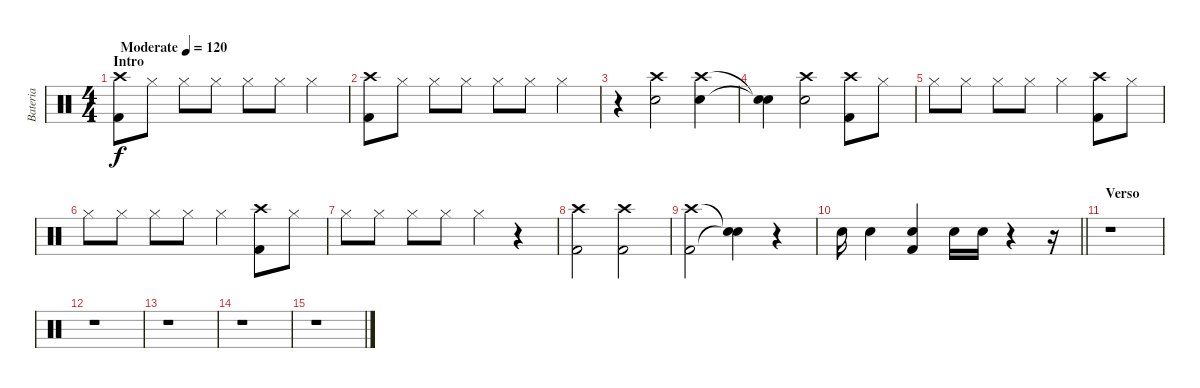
\track ("Bateria" "Bateria") {instrument percussion}
\staff {score}
\articulation defaults
\ts (4 4)
\section ("" "Intro")
\tempo (120 "Moderate")
\clef neutral
\ks c
("Crash high (hit)" "Kick (hit) 2").8{dy f} "Hi-Hat (closed)".8 "Hi-Hat (closed)".8 "Hi-Hat (closed)".8 "Hi-Hat (closed)".8 "Hi-Hat (closed)".8 "Hi-Hat (closed)".4 |
("Crash high (hit)" "Kick (hit) 2").8 "Hi-Hat (closed)".8 "Hi-Hat (closed)".8 "Hi-Hat (closed)".8 "Hi-Hat (closed)".8 "Hi-Hat (closed)".8 "Hi-Hat (closed)".4 |
r.4 ("Crash high (hit)" "Snare (hit) 2").2 ("Crash high (hit)" "Snare (hit) 2").4 |
("Snare (hit)"{t} "Snare (hit)"{t}).4 ("Crash high (hit)" "Snare (hit) 2").2 ("Crash high (hit)" "Kick (hit) 2").8 "Hi-Hat (closed)".8 |
"Hi-Hat (closed)".8 "Hi-Hat (closed)".8 "Hi-Hat (closed)".8 "Hi-Hat (closed)".8 "Hi-Hat (closed)".4 ("Crash high (hit)" "Kick (hit) 2").8 "Hi-Hat (closed)".8 |
"Hi-Hat (closed)".8 "Hi-Hat (closed)".8 "Hi-Hat (closed)".8 "Hi-Hat (closed)".8 "Hi-Hat (closed)".4 ("Crash high (hit)" "Kick (hit) 2").8 "Hi-Hat (closed)".8 |
"Hi-Hat (closed)".8 "Hi-Hat (closed)".8 "Hi-Hat (closed)".8 "Hi-Hat (closed)".8 "Hi-Hat (closed)".4 r.4 |
("Crash high (hit)" "Kick (hit) 2").2 ("Crash high (hit)" "Kick (hit) 2").2 |
("Crash high (hit)" "Kick (hit) 2").2 ("Snare (hit)"{t} "Snare (hit)"{t}).4 r.4 |
\barLineRight lightlight "Snare (hit) 2".16 "Snare (hit) 2".4
("Snare (hit) 2" "Kick (hit) 2").4 "Snare (hit) 2".16 "Snare (hit) 2".16 r.4 r.16 |
\section ("" "Verso")
r.1 |
r.1 |
r.1 |
r.1 |
r.1
